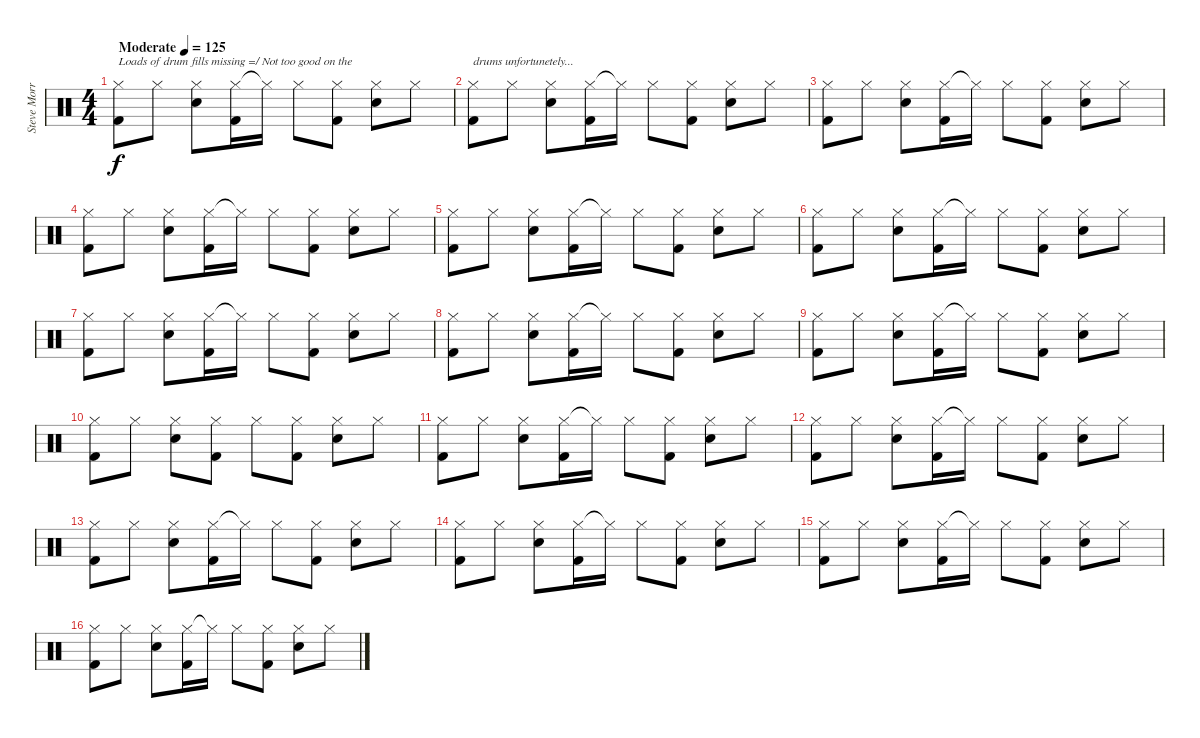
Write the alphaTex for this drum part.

\track ("Steve Morris" "Steve Morr") {instrument percussion}
\staff {score}
\articulation defaults
\ts (4 4)
\tempo (125 "Moderate")
\clef neutral
\ks c
("Hi-Hat (closed)" "Kick (hit) 2").8{txt "Loads of drum fills missing =/ Not too good on the" dy f} "Hi-Hat (closed)".8 ("Hi-Hat (closed)" "Electric Snare (hit)").8 ("Hi-Hat (closed)" "Kick (hit) 2").16 "Hi-Hat (closed)"{t}.16 "Hi-Hat (closed)".8 ("Hi-Hat (closed)" "Kick (hit) 2").8 ("Hi-Hat (closed)" "Electric Snare (hit)").8 "Hi-Hat (closed)".8 |
("Hi-Hat (closed)" "Kick (hit) 2").8{txt "drums unfortunetely..."} "Hi-Hat (closed)".8 ("Hi-Hat (closed)" "Electric Snare (hit)").8 ("Hi-Hat (closed)" "Kick (hit) 2").16 "Hi-Hat (closed)"{t}.16 "Hi-Hat (closed)".8 ("Hi-Hat (closed)" "Kick (hit) 2").8 ("Hi-Hat (closed)" "Electric Snare (hit)").8 "Hi-Hat (closed)".8 |
("Hi-Hat (closed)" "Kick (hit) 2").8 "Hi-Hat (closed)".8 ("Hi-Hat (closed)" "Electric Snare (hit)").8 ("Hi-Hat (closed)" "Kick (hit) 2").16 "Hi-Hat (closed)"{t}.16 "Hi-Hat (closed)".8 ("Hi-Hat (closed)" "Kick (hit) 2").8 ("Hi-Hat (closed)" "Electric Snare (hit)").8 "Hi-Hat (closed)".8 |
("Hi-Hat (closed)" "Kick (hit) 2").8 "Hi-Hat (closed)".8 ("Hi-Hat (closed)" "Electric Snare (hit)").8 ("Hi-Hat (closed)" "Kick (hit) 2").16 "Hi-Hat (closed)"{t}.16 "Hi-Hat (closed)".8 ("Hi-Hat (closed)" "Kick (hit) 2").8 ("Hi-Hat (closed)" "Electric Snare (hit)").8 "Hi-Hat (closed)".8 |
("Hi-Hat (closed)" "Kick (hit) 2").8 "Hi-Hat (closed)".8 ("Hi-Hat (closed)" "Electric Snare (hit)").8 ("Hi-Hat (closed)" "Kick (hit) 2").16 "Hi-Hat (closed)"{t}.16 "Hi-Hat (closed)".8 ("Hi-Hat (closed)" "Kick (hit) 2").8 ("Hi-Hat (closed)" "Electric Snare (hit)").8 "Hi-Hat (closed)".8 |
("Hi-Hat (closed)" "Kick (hit) 2").8 "Hi-Hat (closed)".8 ("Hi-Hat (closed)" "Electric Snare (hit)").8 ("Hi-Hat (closed)" "Kick (hit) 2").16 "Hi-Hat (closed)"{t}.16 "Hi-Hat (closed)".8 ("Hi-Hat (closed)" "Kick (hit) 2").8 ("Hi-Hat (closed)" "Electric Snare (hit)").8 "Hi-Hat (closed)".8 |
("Hi-Hat (closed)" "Kick (hit) 2").8 "Hi-Hat (closed)".8 ("Hi-Hat (closed)" "Electric Snare (hit)").8 ("Hi-Hat (closed)" "Kick (hit) 2").16 "Hi-Hat (closed)"{t}.16 "Hi-Hat (closed)".8 ("Hi-Hat (closed)" "Kick (hit) 2").8 ("Hi-Hat (closed)" "Electric Snare (hit)").8 "Hi-Hat (closed)".8 |
("Hi-Hat (closed)" "Kick (hit) 2").8 "Hi-Hat (closed)".8 ("Hi-Hat (closed)" "Electric Snare (hit)").8 ("Hi-Hat (closed)" "Kick (hit) 2").16 "Hi-Hat (closed)"{t}.16 "Hi-Hat (closed)".8 ("Hi-Hat (closed)" "Kick (hit) 2").8 ("Hi-Hat (closed)" "Electric Snare (hit)").8 "Hi-Hat (closed)".8 |
("Hi-Hat (closed)" "Kick (hit) 2").8 "Hi-Hat (closed)".8 ("Hi-Hat (closed)" "Electric Snare (hit)").8 ("Hi-Hat (closed)" "Kick (hit) 2").16 "Hi-Hat (closed)"{t}.16 "Hi-Hat (closed)".8 ("Hi-Hat (closed)" "Kick (hit) 2").8 ("Hi-Hat (closed)" "Electric Snare (hit)").8 "Hi-Hat (closed)".8 |
("Hi-Hat (closed)" "Kick (hit) 2").8 "Hi-Hat (closed)".8 ("Hi-Hat (closed)" "Electric Snare (hit)").8 ("Hi-Hat (closed)" "Kick (hit) 2").8 "Hi-Hat (closed)".8 ("Hi-Hat (closed)" "Kick (hit) 2").8 ("Hi-Hat (closed)" "Electric Snare (hit)").8 "Hi-Hat (closed)".8 |
("Hi-Hat (closed)" "Kick (hit) 2").8 "Hi-Hat (closed)".8 ("Hi-Hat (closed)" "Electric Snare (hit)").8 ("Hi-Hat (closed)" "Kick (hit) 2").16 "Hi-Hat (closed)"{t}.16 "Hi-Hat (closed)".8 ("Hi-Hat (closed)" "Kick (hit) 2").8 ("Hi-Hat (closed)" "Electric Snare (hit)").8 "Hi-Hat (closed)".8 |
("Hi-Hat (closed)" "Kick (hit) 2").8 "Hi-Hat (closed)".8 ("Hi-Hat (closed)" "Electric Snare (hit)").8 ("Hi-Hat (closed)" "Kick (hit) 2").16 "Hi-Hat (closed)"{t}.16 "Hi-Hat (closed)".8 ("Hi-Hat (closed)" "Kick (hit) 2").8 ("Hi-Hat (closed)" "Electric Snare (hit)").8 "Hi-Hat (closed)".8 |
("Hi-Hat (closed)" "Kick (hit) 2").8 "Hi-Hat (closed)".8 ("Hi-Hat (closed)" "Electric Snare (hit)").8 ("Hi-Hat (closed)" "Kick (hit) 2").16 "Hi-Hat (closed)"{t}.16 "Hi-Hat (closed)".8 ("Hi-Hat (closed)" "Kick (hit) 2").8 ("Hi-Hat (closed)" "Electric Snare (hit)").8 "Hi-Hat (closed)".8 |
("Hi-Hat (closed)" "Kick (hit) 2").8 "Hi-Hat (closed)".8 ("Hi-Hat (closed)" "Electric Snare (hit)").8 ("Hi-Hat (closed)" "Kick (hit) 2").16 "Hi-Hat (closed)"{t}.16 "Hi-Hat (closed)".8 ("Hi-Hat (closed)" "Kick (hit) 2").8 ("Hi-Hat (closed)" "Electric Snare (hit)").8 "Hi-Hat (closed)".8 |
("Hi-Hat (closed)" "Kick (hit) 2").8 "Hi-Hat (closed)".8 ("Hi-Hat (closed)" "Electric Snare (hit)").8 ("Hi-Hat (closed)" "Kick (hit) 2").16 "Hi-Hat (closed)"{t}.16 "Hi-Hat (closed)".8 ("Hi-Hat (closed)" "Kick (hit) 2").8 ("Hi-Hat (closed)" "Electric Snare (hit)").8 "Hi-Hat (closed)".8 |
("Hi-Hat (closed)" "Kick (hit) 2").8 "Hi-Hat (closed)".8 ("Hi-Hat (closed)" "Electric Snare (hit)").8 ("Hi-Hat (closed)" "Kick (hit) 2").16 "Hi-Hat (closed)"{t}.16 "Hi-Hat (closed)".8 ("Hi-Hat (closed)" "Kick (hit) 2").8 ("Hi-Hat (closed)" "Electric Snare (hit)").8 "Hi-Hat (closed)".8
